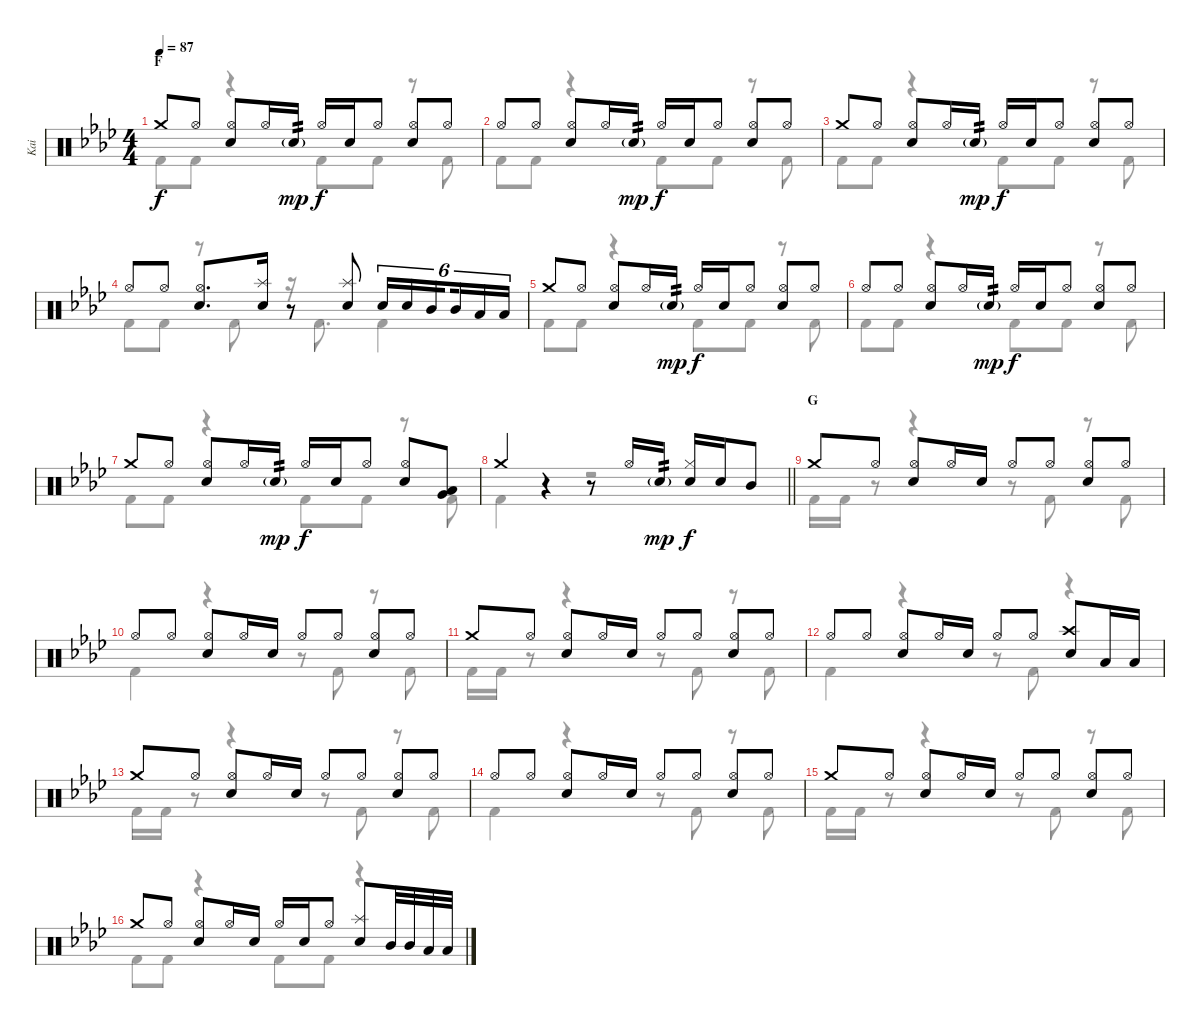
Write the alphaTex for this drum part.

\track ("Kai" "Kai") {instrument percussion}
\staff {score}
\articulation defaults
\voice
\ts (4 4)
\section ("" "F")
\tempo 87
\clef neutral
\ks ab "Crash medium (hit)".8{dy f} "Hi-Hat (open)".8
("Hi-Hat (open)" "Snare (hit) 2").8 "Hi-Hat (open)".16 "Snare (hit) 2"{g}.16{tp 2 dy mp} "Hi-Hat (open)".16{dy f} "Snare (hit) 2".16 "Hi-Hat (open)".8 ("Hi-Hat (open)" "Snare (hit) 2").8 "Hi-Hat (open)".8 |
"Hi-Hat (open)".8 "Hi-Hat (open)".8 ("Hi-Hat (open)" "Snare (hit) 2").8 "Hi-Hat (open)".16 "Snare (hit) 2"{g}.16{tp 2 dy mp} "Hi-Hat (open)".16{dy f} "Snare (hit) 2".16 "Hi-Hat (open)".8 ("Hi-Hat (open)" "Snare (hit) 2").8 "Hi-Hat (open)".8 |
"Crash medium (hit)".8 "Hi-Hat (open)".8 ("Hi-Hat (open)" "Snare (hit) 2").8 "Hi-Hat (open)".16 "Snare (hit) 2"{g}.16{tp 2 dy mp} "Hi-Hat (open)".16{dy f} "Snare (hit) 2".16 "Hi-Hat (open)".8 ("Hi-Hat (open)" "Snare (hit) 2").8 "Hi-Hat (open)".8 |
"Hi-Hat (open)".8 "Hi-Hat (open)".8 ("Hi-Hat (open)" "Snare (hit) 2").8{d} ("Splash (hit)" "Snare (hit) 2").16 r.8 ("Splash (hit)" "Snare (hit) 2").8 "Snare (hit) 2".16{tu (6 4)} "Snare (hit) 2".16{tu (6 4)} "Mid Tom (hit)".16{tu (6 4) beam splitsecondary} "Mid Tom (hit)".16{tu (6 4)} "Low Tom (hit)".16{tu (6 4)} "Low Tom (hit)".16{tu (6 4)} |
"Crash medium (hit)".8 "Hi-Hat (open)".8 ("Hi-Hat (open)" "Snare (hit) 2").8 "Hi-Hat (open)".16 "Snare (hit) 2"{g}.16{tp 2 dy mp} "Hi-Hat (open)".16{dy f} "Snare (hit) 2".16 "Hi-Hat (open)".8 ("Hi-Hat (open)" "Snare (hit) 2").8 "Hi-Hat (open)".8 |
"Hi-Hat (open)".8 "Hi-Hat (open)".8 ("Hi-Hat (open)" "Snare (hit) 2").8 "Hi-Hat (open)".16 "Snare (hit) 2"{g}.16{tp 2 dy mp} "Hi-Hat (open)".16{dy f} "Snare (hit) 2".16 "Hi-Hat (open)".8 ("Hi-Hat (open)" "Snare (hit) 2").8 "Hi-Hat (open)".8 |
"Crash medium (hit)".8 "Hi-Hat (open)".8 ("Hi-Hat (open)" "Snare (hit) 2").8 "Hi-Hat (open)".16 "Snare (hit) 2"{g}.16{tp 2 dy mp} "Hi-Hat (open)".16{dy f} "Snare (hit) 2".16 "Hi-Hat (open)".8 ("Hi-Hat (open)" "Snare (hit) 2").8 ("Low Tom (hit)" "Very Low Tom (hit)").8 |
\barLineRight lightlight "Crash medium (hit)".4
r.4 r.8 "Hi-Hat (open)".16 "Snare (hit) 2"{g}.16{tp 2 dy mp} ("Hi-Hat (closed)" "Snare (hit) 2").16{dy f} "Snare (hit) 2".16 "Mid Tom (hit)".8 |
\section ("" "G")
"Crash medium (hit)".8 "Hi-Hat (open)".8 ("Hi-Hat (open)" "Snare (hit) 2").8 "Hi-Hat (open)".16 "Snare (hit) 2".16 "Hi-Hat (open)".8 "Hi-Hat (open)".8 ("Hi-Hat (open)" "Snare (hit) 2").8 "Hi-Hat (open)".8 |
"Hi-Hat (open)".8 "Hi-Hat (open)".8 ("Hi-Hat (open)" "Snare (hit) 2").8 "Hi-Hat (open)".16 "Snare (hit) 2".16 "Hi-Hat (open)".8 "Hi-Hat (open)".8 ("Hi-Hat (open)" "Snare (hit) 2").8 "Hi-Hat (open)".8 |
"Crash medium (hit)".8 "Hi-Hat (open)".8 ("Hi-Hat (open)" "Snare (hit) 2").8 "Hi-Hat (open)".16 "Snare (hit) 2".16 "Hi-Hat (open)".8 "Hi-Hat (open)".8 ("Hi-Hat (open)" "Snare (hit) 2").8 "Hi-Hat (open)".8 |
"Hi-Hat (open)".8 "Hi-Hat (open)".8 ("Hi-Hat (open)" "Snare (hit) 2").8 "Hi-Hat (open)".16 "Snare (hit) 2".16 "Hi-Hat (open)".8 "Hi-Hat (open)".8 ("Crash high (hit)" "Snare (hit) 2").8 "Low Tom (hit)".16 "Low Tom (hit)".16 |
"Crash medium (hit)".8 "Hi-Hat (open)".8 ("Hi-Hat (open)" "Snare (hit) 2").8 "Hi-Hat (open)".16 "Snare (hit) 2".16 "Hi-Hat (open)".8 "Hi-Hat (open)".8 ("Hi-Hat (open)" "Snare (hit) 2").8 "Hi-Hat (open)".8 |
"Hi-Hat (open)".8 "Hi-Hat (open)".8 ("Hi-Hat (open)" "Snare (hit) 2").8 "Hi-Hat (open)".16 "Snare (hit) 2".16 "Hi-Hat (open)".8 "Hi-Hat (open)".8 ("Hi-Hat (open)" "Snare (hit) 2").8 "Hi-Hat (open)".8 |
"Crash medium (hit)".8 "Hi-Hat (open)".8 ("Hi-Hat (open)" "Snare (hit) 2").8 "Hi-Hat (open)".16 "Snare (hit) 2".16 "Hi-Hat (open)".8 "Hi-Hat (open)".8 ("Hi-Hat (open)" "Snare (hit) 2").8 "Hi-Hat (open)".8 |
"Crash medium (hit)".8 "Hi-Hat (open)".8 ("Hi-Hat (open)" "Snare (hit) 2").8 "Hi-Hat (open)".16 "Snare (hit) 2".16 "Hi-Hat (open)".16 "Snare (hit) 2".16 "Hi-Hat (open)".8 ("Splash (hit)" "Snare (hit) 2").8 "Mid Tom (hit)".32 "Mid Tom (hit)".32 "Low Tom (hit)".32 "Low Tom (hit)".32
\voice
\clef neutral
\ottava regular
\simile none
\ks ab "Kick (hit) 2".8{dy f} "Kick (hit) 2".8
r.4 "Kick (hit) 2".8 "Kick (hit) 2".8 r.8 "Kick (hit) 2".8 |
"Kick (hit) 2".8 "Kick (hit) 2".8 r.4 "Kick (hit) 2".8 "Kick (hit) 2".8 r.8 "Kick (hit) 2".8 |
"Kick (hit) 2".8 "Kick (hit) 2".8 r.4 "Kick (hit) 2".8 "Kick (hit) 2".8 r.8 "Kick (hit) 2".8 |
"Kick (hit) 2".8 "Kick (hit) 2".8 r.8 "Kick (hit) 2".8 r.16 "Kick (hit) 2".8{d} "Kick (hit) 2".4 |
"Kick (hit) 2".8 "Kick (hit) 2".8 r.4 "Kick (hit) 2".8 "Kick (hit) 2".8 r.8 "Kick (hit) 2".8 |
"Kick (hit) 2".8 "Kick (hit) 2".8 r.4 "Kick (hit) 2".8 "Kick (hit) 2".8 r.8 "Kick (hit) 2".8 |
"Kick (hit) 2".8 "Kick (hit) 2".8 r.4 "Kick (hit) 2".8 "Kick (hit) 2".8 r.8 "Kick (hit) 2".8 |
\barLineRight lightlight "Kick (hit) 2".4
r.4 r.2 |
"Kick (hit) 2".16 "Kick (hit) 2".16 r.8 r.4 r.8 "Kick (hit) 2".8 r.8 "Kick (hit) 2".8 |
"Kick (hit) 2".4 r.4 r.8 "Kick (hit) 2".8 r.8 "Kick (hit) 2".8 |
"Kick (hit) 2".16 "Kick (hit) 2".16 r.8 r.4 r.8 "Kick (hit) 2".8 r.8 "Kick (hit) 2".8 |
"Kick (hit) 2".4 r.4 r.8 "Kick (hit) 2".8 r.4 |
"Kick (hit) 2".16 "Kick (hit) 2".16 r.8 r.4 r.8 "Kick (hit) 2".8 r.8 "Kick (hit) 2".8 |
"Kick (hit) 2".4 r.4 r.8 "Kick (hit) 2".8 r.8 "Kick (hit) 2".8 |
"Kick (hit) 2".16 "Kick (hit) 2".16 r.8 r.4 r.8 "Kick (hit) 2".8 r.8 "Kick (hit) 2".8 |
"Kick (hit) 2".8 "Kick (hit) 2".8 r.4 "Kick (hit) 2".8 "Kick (hit) 2".8 r.4
